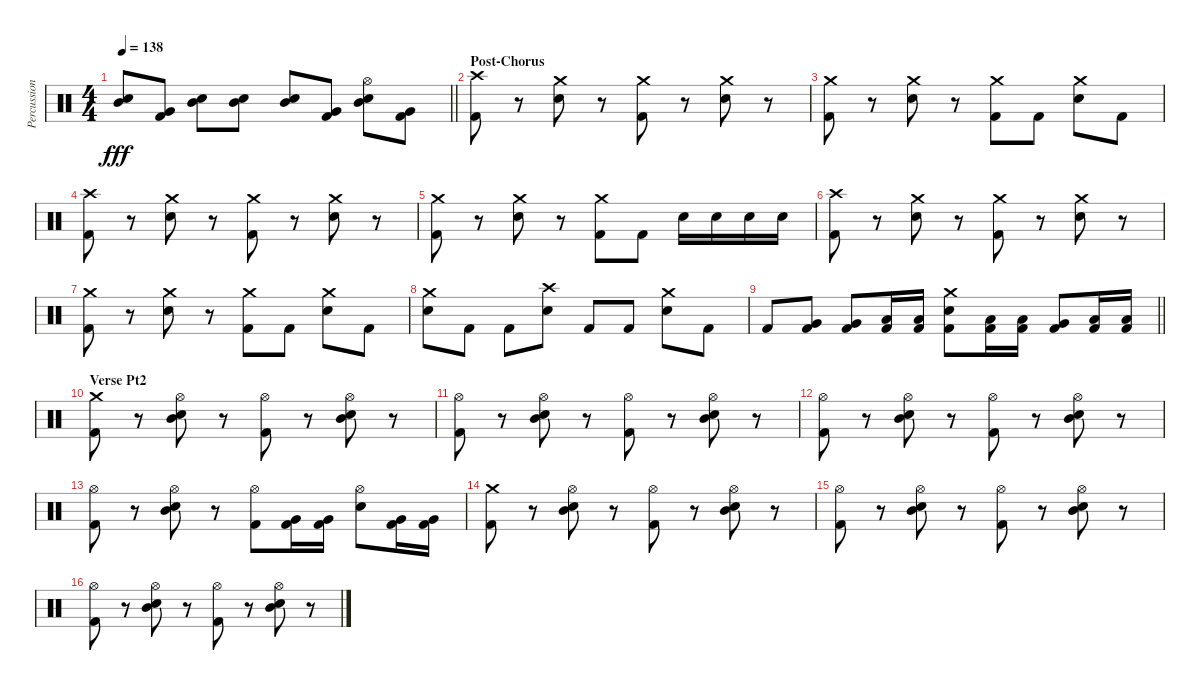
\track ("Percussion" "Percussion") {instrument percussion}
\staff {score}
\articulation defaults
\ts (4 4)
\tempo 138
\clef neutral
\barLineRight lightlight
\ks c
("Snare (hit) 2" "Mid Tom (hit)").8{dy fff} ("Kick (hit) 2" "Very Low Tom (hit)").8 ("Snare (hit) 2" "Mid Tom (hit)").8 ("Snare (hit) 2" "Mid Tom (hit)").8 ("Snare (hit) 2" "Mid Tom (hit)").8 ("Kick (hit) 2" "Very Low Tom (hit)").8 ("Snare (hit) 2" "Mid Tom (hit)" "Hi-Hat (open)").8 ("Kick (hit) 2" "Very Low Tom (hit)").8 |
\section ("" "Post-Chorus")
("Kick (hit) 2" "Crash high (hit)").8 r.8 ("Snare (hit) 2" "Crash medium (hit)").8 r.8 ("Kick (hit) 2" "Crash medium (hit)").8 r.8 ("Snare (hit) 2" "Crash medium (hit)").8 r.8 |
("Kick (hit) 2" "Crash medium (hit)").8 r.8 ("Snare (hit) 2" "Crash medium (hit)").8 r.8 ("Kick (hit) 2" "Crash medium (hit)").8 "Kick (hit) 2".8 ("Snare (hit) 2" "Crash medium (hit)").8 "Kick (hit) 2".8 |
("Kick (hit) 2" "Crash high (hit)").8 r.8 ("Snare (hit) 2" "Crash medium (hit)").8 r.8 ("Kick (hit) 2" "Crash medium (hit)").8 r.8 ("Snare (hit) 2" "Crash medium (hit)").8 r.8 |
("Kick (hit) 2" "Crash medium (hit)").8 r.8 ("Snare (hit) 2" "Crash medium (hit)").8 r.8 ("Kick (hit) 2" "Crash medium (hit)").8 "Kick (hit) 2".8 "Snare (hit) 2".16 "Snare (hit) 2".16 "Snare (hit) 2".16 "Snare (hit) 2".16 |
("Kick (hit) 2" "Crash high (hit)").8 r.8 ("Snare (hit) 2" "Crash medium (hit)").8 r.8 ("Kick (hit) 2" "Crash medium (hit)").8 r.8 ("Snare (hit) 2" "Crash medium (hit)").8 r.8 |
("Kick (hit) 2" "Crash medium (hit)").8 r.8 ("Snare (hit) 2" "Crash medium (hit)").8 r.8 ("Kick (hit) 2" "Crash medium (hit)").8 "Kick (hit) 2".8 ("Snare (hit) 2" "Crash medium (hit)").8 "Kick (hit) 2".8 |
("Snare (hit) 2" "Crash medium (hit)").8 "Kick (hit) 2".8 "Kick (hit) 2".8 ("Snare (hit) 2" "Crash high (hit)").8 "Kick (hit) 2".8 "Kick (hit) 2".8 ("Snare (hit) 2" "Crash medium (hit)").8 "Kick (hit) 2".8 |
\barLineRight lightlight "Kick (hit) 2".8
("Kick (hit) 2" "Very Low Tom (hit)").8 ("Kick (hit) 2" "Very Low Tom (hit)").8 ("Kick (hit) 2" "Low Tom (hit)").16 ("Kick (hit) 2" "Low Tom (hit)").16 ("Kick (hit) 2" "Snare (hit) 2" "Crash medium (hit)").8 ("Kick (hit) 2" "Low Tom (hit)").16 ("Kick (hit) 2" "Low Tom (hit)").16 ("Kick (hit) 2" "Very Low Tom (hit)").8 ("Kick (hit) 2" "Low Tom (hit)").16 ("Kick (hit) 2" "Low Tom (hit)").16 |
\section ("" "Verse Pt2")
("Kick (hit) 2" "Crash medium (hit)").8 r.8 ("Snare (hit) 2" "Mid Tom (hit)" "Hi-Hat (open)").8 r.8 ("Kick (hit) 2" "Hi-Hat (open)").8 r.8 ("Snare (hit) 2" "Mid Tom (hit)" "Hi-Hat (open)").8 r.8 |
("Kick (hit) 2" "Hi-Hat (open)").8 r.8 ("Snare (hit) 2" "Mid Tom (hit)" "Hi-Hat (open)").8 r.8 ("Kick (hit) 2" "Hi-Hat (open)").8 r.8 ("Snare (hit) 2" "Mid Tom (hit)" "Hi-Hat (open)").8 r.8 |
("Kick (hit) 2" "Hi-Hat (open)").8 r.8 ("Snare (hit) 2" "Mid Tom (hit)" "Hi-Hat (open)").8 r.8 ("Kick (hit) 2" "Hi-Hat (open)").8 r.8 ("Snare (hit) 2" "Mid Tom (hit)" "Hi-Hat (open)").8 r.8 |
("Kick (hit) 2" "Hi-Hat (open)").8 r.8 ("Snare (hit) 2" "Mid Tom (hit)" "Hi-Hat (open)").8 r.8 ("Kick (hit) 2" "Hi-Hat (open)").8 ("Kick (hit) 2" "Very Low Tom (hit)").16 ("Kick (hit) 2" "Very Low Tom (hit)").16 ("Snare (hit) 2" "Hi-Hat (open)").8 ("Kick (hit) 2" "Very Low Tom (hit)").16 ("Kick (hit) 2" "Very Low Tom (hit)").16 |
("Kick (hit) 2" "Crash medium (hit)").8 r.8 ("Snare (hit) 2" "Mid Tom (hit)" "Hi-Hat (open)").8 r.8 ("Kick (hit) 2" "Hi-Hat (open)").8 r.8 ("Snare (hit) 2" "Mid Tom (hit)" "Hi-Hat (open)").8 r.8 |
("Kick (hit) 2" "Hi-Hat (open)").8 r.8 ("Snare (hit) 2" "Mid Tom (hit)" "Hi-Hat (open)").8 r.8 ("Kick (hit) 2" "Hi-Hat (open)").8 r.8 ("Snare (hit) 2" "Mid Tom (hit)" "Hi-Hat (open)").8 r.8 |
("Kick (hit) 2" "Hi-Hat (open)").8 r.8 ("Snare (hit) 2" "Mid Tom (hit)" "Hi-Hat (open)").8 r.8 ("Kick (hit) 2" "Hi-Hat (open)").8 r.8 ("Snare (hit) 2" "Mid Tom (hit)" "Hi-Hat (open)").8 r.8
